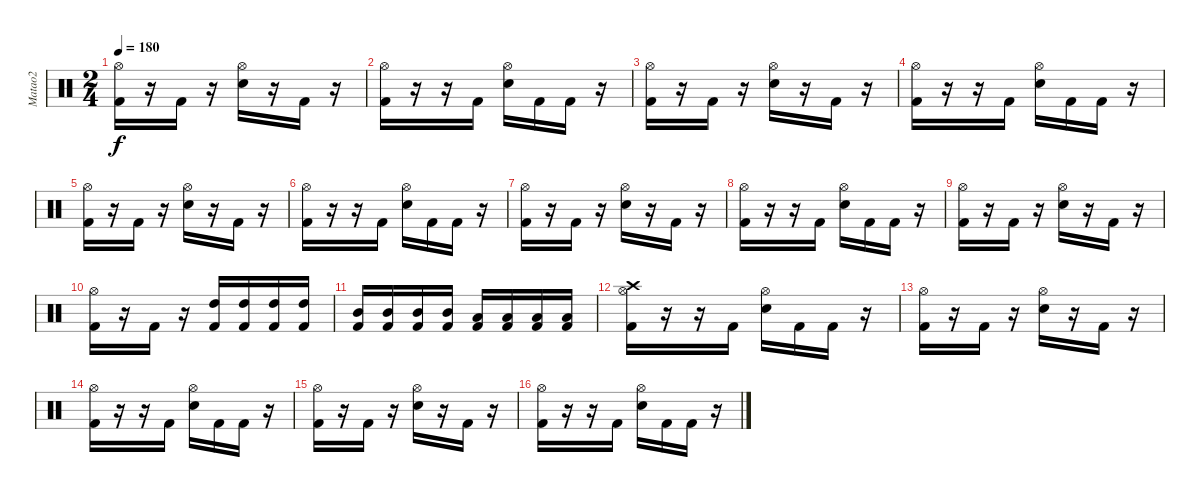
\track ("Matao2" "Matao2") {instrument percussion}
\staff {score}
\articulation defaults
\ts (2 4)
\tempo 180
\clef neutral
\ks c
("Kick (hit) 2" "Hi-Hat (open)").16{dy f} r.16 "Kick (hit) 2".16 r.16 ("Electric Snare (hit)" "Hi-Hat (open)").16 r.16 "Kick (hit) 2".16 r.16 |
("Kick (hit) 2" "Hi-Hat (open)").16 r.16 r.16 "Kick (hit) 2".16 ("Electric Snare (hit)" "Hi-Hat (open)").16 "Kick (hit) 2".16 "Kick (hit) 2".16 r.16 |
("Kick (hit) 2" "Hi-Hat (open)").16 r.16 "Kick (hit) 2".16 r.16 ("Electric Snare (hit)" "Hi-Hat (open)").16 r.16 "Kick (hit) 2".16 r.16 |
("Kick (hit) 2" "Hi-Hat (open)").16 r.16 r.16 "Kick (hit) 2".16 ("Electric Snare (hit)" "Hi-Hat (open)").16 "Kick (hit) 2".16 "Kick (hit) 2".16 r.16 |
("Kick (hit) 2" "Hi-Hat (open)").16 r.16 "Kick (hit) 2".16 r.16 ("Electric Snare (hit)" "Hi-Hat (open)").16 r.16 "Kick (hit) 2".16 r.16 |
("Kick (hit) 2" "Hi-Hat (open)").16 r.16 r.16 "Kick (hit) 2".16 ("Electric Snare (hit)" "Hi-Hat (open)").16 "Kick (hit) 2".16 "Kick (hit) 2".16 r.16 |
("Kick (hit) 2" "Hi-Hat (open)").16 r.16 "Kick (hit) 2".16 r.16 ("Electric Snare (hit)" "Hi-Hat (open)").16 r.16 "Kick (hit) 2".16 r.16 |
("Kick (hit) 2" "Hi-Hat (open)").16 r.16 r.16 "Kick (hit) 2".16 ("Electric Snare (hit)" "Hi-Hat (open)").16 "Kick (hit) 2".16 "Kick (hit) 2".16 r.16 |
("Kick (hit) 2" "Hi-Hat (open)").16 r.16 "Kick (hit) 2".16 r.16 ("Electric Snare (hit)" "Hi-Hat (open)").16 r.16 "Kick (hit) 2".16 r.16 |
("Kick (hit) 2" "Hi-Hat (open)").16 r.16 "Kick (hit) 2".16 r.16 ("Kick (hit) 2" "High Tom (hit)").16 ("Kick (hit) 2" "High Tom (hit)").16 ("Kick (hit) 2" "High Tom (hit)").16 ("Kick (hit) 2" "High Tom (hit)").16 |
("Kick (hit) 2" "Mid Tom (hit)").16 ("Kick (hit) 2" "Mid Tom (hit)").16 ("Kick (hit) 2" "Mid Tom (hit)").16 ("Kick (hit) 2" "Mid Tom (hit)").16 ("Kick (hit) 2" "Low Tom (hit)").16 ("Kick (hit) 2" "Low Tom (hit)").16 ("Kick (hit) 2" "Low Tom (hit)").16 ("Kick (hit) 2" "Low Tom (hit)").16 |
("Kick (hit) 2" "Hi-Hat (open)" "Crash high (hit)").16 r.16 r.16 "Kick (hit) 2".16 ("Electric Snare (hit)" "Hi-Hat (open)").16 "Kick (hit) 2".16 "Kick (hit) 2".16 r.16 |
("Kick (hit) 2" "Hi-Hat (open)").16 r.16 "Kick (hit) 2".16 r.16 ("Electric Snare (hit)" "Hi-Hat (open)").16 r.16 "Kick (hit) 2".16 r.16 |
("Kick (hit) 2" "Hi-Hat (open)").16 r.16 r.16 "Kick (hit) 2".16 ("Electric Snare (hit)" "Hi-Hat (open)").16 "Kick (hit) 2".16 "Kick (hit) 2".16 r.16 |
("Kick (hit) 2" "Hi-Hat (open)").16 r.16 "Kick (hit) 2".16 r.16 ("Electric Snare (hit)" "Hi-Hat (open)").16 r.16 "Kick (hit) 2".16 r.16 |
("Kick (hit) 2" "Hi-Hat (open)").16 r.16 r.16 "Kick (hit) 2".16 ("Electric Snare (hit)" "Hi-Hat (open)").16 "Kick (hit) 2".16 "Kick (hit) 2".16 r.16
